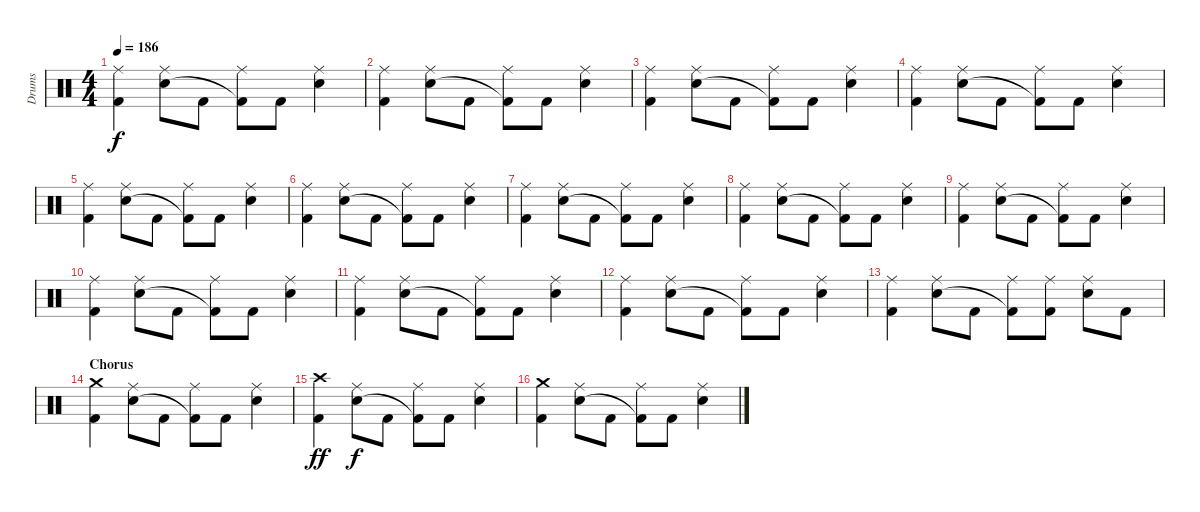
\track ("Drums" "Drums") {instrument percussion}
\staff {score}
\articulation defaults
\ts (4 4)
\tempo 186
\clef neutral
\ks c
("Ride (middle)" "Kick (hit) 2").4{dy f} ("Ride (middle)" "Electric Snare (hit)").8 "Kick (hit) 2".8 ("Ride (middle)" "Kick (hit) 2"{t}).8 "Kick (hit) 2".8 ("Ride (middle)" "Electric Snare (hit)").4 |
("Ride (middle)" "Kick (hit) 2").4 ("Ride (middle)" "Electric Snare (hit)").8 "Kick (hit) 2".8 ("Ride (middle)" "Kick (hit) 2"{t}).8 "Kick (hit) 2".8 ("Ride (middle)" "Electric Snare (hit)").4 |
("Ride (middle)" "Kick (hit) 2").4 ("Ride (middle)" "Electric Snare (hit)").8 "Kick (hit) 2".8 ("Ride (middle)" "Kick (hit) 2"{t}).8 "Kick (hit) 2".8 ("Ride (middle)" "Electric Snare (hit)").4 |
("Ride (middle)" "Kick (hit) 2").4 ("Ride (middle)" "Electric Snare (hit)").8 "Kick (hit) 2".8 ("Ride (middle)" "Kick (hit) 2"{t}).8 "Kick (hit) 2".8 ("Ride (middle)" "Electric Snare (hit)").4 |
("Ride (middle)" "Kick (hit) 2").4 ("Ride (middle)" "Electric Snare (hit)").8 "Kick (hit) 2".8 ("Ride (middle)" "Kick (hit) 2"{t}).8 "Kick (hit) 2".8 ("Ride (middle)" "Electric Snare (hit)").4 |
("Ride (middle)" "Kick (hit) 2").4 ("Ride (middle)" "Electric Snare (hit)").8 "Kick (hit) 2".8 ("Ride (middle)" "Kick (hit) 2"{t}).8 "Kick (hit) 2".8 ("Ride (middle)" "Electric Snare (hit)").4 |
("Ride (middle)" "Kick (hit) 2").4 ("Ride (middle)" "Electric Snare (hit)").8 "Kick (hit) 2".8 ("Ride (middle)" "Kick (hit) 2"{t}).8 "Kick (hit) 2".8 ("Ride (middle)" "Electric Snare (hit)").4 |
("Ride (middle)" "Kick (hit) 2").4 ("Ride (middle)" "Electric Snare (hit)").8 "Kick (hit) 2".8 ("Ride (middle)" "Kick (hit) 2"{t}).8 "Kick (hit) 2".8 ("Ride (middle)" "Electric Snare (hit)").4 |
("Ride (middle)" "Kick (hit) 2").4 ("Ride (middle)" "Electric Snare (hit)").8 "Kick (hit) 2".8 ("Ride (middle)" "Kick (hit) 2"{t}).8 "Kick (hit) 2".8 ("Ride (middle)" "Electric Snare (hit)").4 |
("Ride (middle)" "Kick (hit) 2").4 ("Ride (middle)" "Electric Snare (hit)").8 "Kick (hit) 2".8 ("Ride (middle)" "Kick (hit) 2"{t}).8 "Kick (hit) 2".8 ("Ride (middle)" "Electric Snare (hit)").4 |
("Ride (middle)" "Kick (hit) 2").4 ("Ride (middle)" "Electric Snare (hit)").8 "Kick (hit) 2".8 ("Ride (middle)" "Kick (hit) 2"{t}).8 "Kick (hit) 2".8 ("Ride (middle)" "Electric Snare (hit)").4 |
("Ride (middle)" "Kick (hit) 2").4 ("Ride (middle)" "Electric Snare (hit)").8 "Kick (hit) 2".8 ("Ride (middle)" "Kick (hit) 2"{t}).8 "Kick (hit) 2".8 ("Ride (middle)" "Electric Snare (hit)").4 |
("Ride (middle)" "Kick (hit) 2").4 ("Ride (middle)" "Electric Snare (hit)").8 "Kick (hit) 2".8 ("Ride (middle)" "Kick (hit) 2"{t}).8 ("Ride (middle)" "Kick (hit) 2").8 ("Ride (middle)" "Electric Snare (hit)").8 "Kick (hit) 2".8 |
\section ("" "Chorus")
("Crash medium (hit)" "Kick (hit) 2").4 ("Ride (middle)" "Electric Snare (hit)").8 "Kick (hit) 2".8 ("Ride (middle)" "Kick (hit) 2"{t}).8 "Kick (hit) 2".8 ("Ride (middle)" "Electric Snare (hit)").4 |
("Crash high (hit)" "Kick (hit) 2").4{dy ff} ("Ride (middle)" "Electric Snare (hit)").8{dy f} "Kick (hit) 2".8 ("Ride (middle)" "Kick (hit) 2"{t}).8 "Kick (hit) 2".8 ("Ride (middle)" "Electric Snare (hit)").4 |
("Crash medium (hit)" "Kick (hit) 2").4 ("Ride (middle)" "Electric Snare (hit)").8 "Kick (hit) 2".8 ("Ride (middle)" "Kick (hit) 2"{t}).8 "Kick (hit) 2".8 ("Ride (middle)" "Electric Snare (hit)").4
